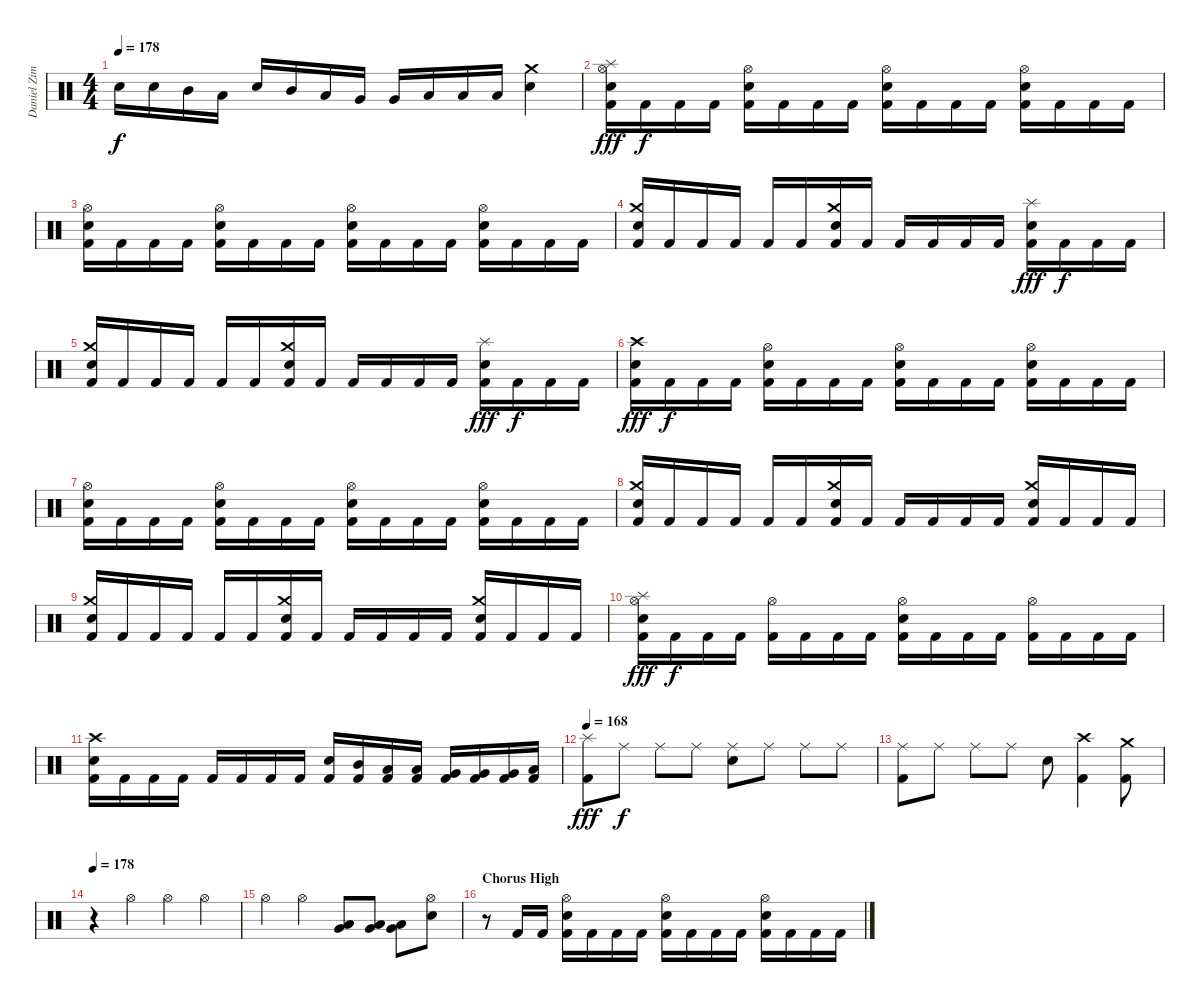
\track ("Daniel Zimmermann" "Daniel Zim") {instrument percussion}
\staff {score}
\articulation defaults
\ts (4 4)
\tempo 178
\clef neutral
\ks c "Electric Snare (hit)".16{dy f} "Electric Snare (hit)".16 "Mid Tom (hit)".16 "Low Tom (hit)".16 "Electric Snare (hit)".16 "Mid Tom (hit)".16 "Low Tom (hit)".16 "Very Low Tom (hit)".16 "Very Low Tom (hit)".16 "Low Floor Tom (hit)".16 "Low Floor Tom (hit)".16 "Low Floor Tom (hit)".16
("Electric Snare (hit)" "Crash medium (hit)").4 |
("Kick (hit) 2" "Electric Snare (hit)" "Splash (hit)" "Hi-Hat (open)").16{dy fff} "Kick (hit) 2".16{dy f} "Kick (hit) 2".16 "Kick (hit) 2".16 ("Kick (hit) 2" "Electric Snare (hit)" "Hi-Hat (open)").16 "Kick (hit) 2".16 "Kick (hit) 2".16 "Kick (hit) 2".16 ("Kick (hit) 2" "Electric Snare (hit)" "Hi-Hat (open)").16 "Kick (hit) 2".16 "Kick (hit) 2".16 "Kick (hit) 2".16 ("Kick (hit) 2" "Electric Snare (hit)" "Hi-Hat (open)").16 "Kick (hit) 2".16 "Kick (hit) 2".16 "Kick (hit) 2".16 |
("Kick (hit) 2" "Electric Snare (hit)" "Hi-Hat (open)").16 "Kick (hit) 2".16 "Kick (hit) 2".16 "Kick (hit) 2".16 ("Kick (hit) 2" "Electric Snare (hit)" "Hi-Hat (open)").16 "Kick (hit) 2".16 "Kick (hit) 2".16 "Kick (hit) 2".16 ("Kick (hit) 2" "Electric Snare (hit)" "Hi-Hat (open)").16 "Kick (hit) 2".16 "Kick (hit) 2".16 "Kick (hit) 2".16 ("Kick (hit) 2" "Electric Snare (hit)" "Hi-Hat (open)").16 "Kick (hit) 2".16 "Kick (hit) 2".16 "Kick (hit) 2".16 |
("Kick (hit) 2" "Electric Snare (hit)" "Crash medium (hit)").16 "Kick (hit) 2".16 "Kick (hit) 2".16 "Kick (hit) 2".16 "Kick (hit) 2".16 "Kick (hit) 2".16 ("Kick (hit) 2" "Electric Snare (hit)" "Crash medium (hit)").16 "Kick (hit) 2".16 "Kick (hit) 2".16 "Kick (hit) 2".16 "Kick (hit) 2".16 "Kick (hit) 2".16 ("Kick (hit) 2" "Electric Snare (hit)" "Splash (hit)").16{dy fff} "Kick (hit) 2".16{dy f} "Kick (hit) 2".16 "Kick (hit) 2".16 |
("Kick (hit) 2" "Electric Snare (hit)" "Crash medium (hit)").16 "Kick (hit) 2".16 "Kick (hit) 2".16 "Kick (hit) 2".16 "Kick (hit) 2".16 "Kick (hit) 2".16 ("Kick (hit) 2" "Electric Snare (hit)" "Crash medium (hit)").16 "Kick (hit) 2".16 "Kick (hit) 2".16 "Kick (hit) 2".16 "Kick (hit) 2".16 "Kick (hit) 2".16 ("Kick (hit) 2" "Electric Snare (hit)" "Splash (hit)").16{dy fff} "Kick (hit) 2".16{dy f} "Kick (hit) 2".16 "Kick (hit) 2".16 |
("Kick (hit) 2" "Electric Snare (hit)" "Crash high (hit)").16{dy fff} "Kick (hit) 2".16{dy f} "Kick (hit) 2".16 "Kick (hit) 2".16 ("Kick (hit) 2" "Electric Snare (hit)" "Hi-Hat (open)").16 "Kick (hit) 2".16 "Kick (hit) 2".16 "Kick (hit) 2".16 ("Kick (hit) 2" "Electric Snare (hit)" "Hi-Hat (open)").16 "Kick (hit) 2".16 "Kick (hit) 2".16 "Kick (hit) 2".16 ("Kick (hit) 2" "Electric Snare (hit)" "Hi-Hat (open)").16 "Kick (hit) 2".16 "Kick (hit) 2".16 "Kick (hit) 2".16 |
("Kick (hit) 2" "Electric Snare (hit)" "Hi-Hat (open)").16 "Kick (hit) 2".16 "Kick (hit) 2".16 "Kick (hit) 2".16 ("Kick (hit) 2" "Electric Snare (hit)" "Hi-Hat (open)").16 "Kick (hit) 2".16 "Kick (hit) 2".16 "Kick (hit) 2".16 ("Kick (hit) 2" "Electric Snare (hit)" "Hi-Hat (open)").16 "Kick (hit) 2".16 "Kick (hit) 2".16 "Kick (hit) 2".16 ("Kick (hit) 2" "Electric Snare (hit)" "Hi-Hat (open)").16 "Kick (hit) 2".16 "Kick (hit) 2".16 "Kick (hit) 2".16 |
("Kick (hit) 2" "Electric Snare (hit)" "Crash medium (hit)").16 "Kick (hit) 2".16 "Kick (hit) 2".16 "Kick (hit) 2".16 "Kick (hit) 2".16 "Kick (hit) 2".16 ("Kick (hit) 2" "Electric Snare (hit)" "Crash medium (hit)").16 "Kick (hit) 2".16 "Kick (hit) 2".16 "Kick (hit) 2".16 "Kick (hit) 2".16 "Kick (hit) 2".16 ("Kick (hit) 2" "Electric Snare (hit)" "Crash medium (hit)").16 "Kick (hit) 2".16 "Kick (hit) 2".16 "Kick (hit) 2".16 |
("Kick (hit) 2" "Electric Snare (hit)" "Crash medium (hit)").16 "Kick (hit) 2".16 "Kick (hit) 2".16 "Kick (hit) 2".16 "Kick (hit) 2".16 "Kick (hit) 2".16 ("Kick (hit) 2" "Electric Snare (hit)" "Crash medium (hit)").16 "Kick (hit) 2".16 "Kick (hit) 2".16 "Kick (hit) 2".16 "Kick (hit) 2".16 "Kick (hit) 2".16 ("Kick (hit) 2" "Electric Snare (hit)" "Crash medium (hit)").16 "Kick (hit) 2".16 "Kick (hit) 2".16 "Kick (hit) 2".16 |
("Kick (hit) 2" "Electric Snare (hit)" "Splash (hit)" "Hi-Hat (open)").16{dy fff} "Kick (hit) 2".16{dy f} "Kick (hit) 2".16 "Kick (hit) 2".16 ("Kick (hit) 2" "Hi-Hat (open)").16 "Kick (hit) 2".16 "Kick (hit) 2".16 "Kick (hit) 2".16 ("Kick (hit) 2" "Electric Snare (hit)" "Hi-Hat (open)").16 "Kick (hit) 2".16 "Kick (hit) 2".16 "Kick (hit) 2".16 ("Kick (hit) 2" "Hi-Hat (open)").16 "Kick (hit) 2".16 "Kick (hit) 2".16 "Kick (hit) 2".16 |
("Kick (hit) 2" "Electric Snare (hit)" "Crash high (hit)").16 "Kick (hit) 2".16 "Kick (hit) 2".16 "Kick (hit) 2".16 "Kick (hit) 2".16 "Kick (hit) 2".16 "Kick (hit) 2".16 "Kick (hit) 2".16 ("Kick (hit) 2" "Electric Snare (hit)").16 ("Kick (hit) 2" "Mid Tom (hit)").16 ("Kick (hit) 2" "Low Tom (hit)").16 ("Kick (hit) 2" "Low Tom (hit)").16 ("Kick (hit) 2" "Very Low Tom (hit)").16 ("Kick (hit) 2" "Very Low Tom (hit)").16 ("Kick (hit) 2" "Very Low Tom (hit)").16 ("Kick (hit) 2" "Low Floor Tom (hit)").16 |
\tempo 168
("Kick (hit) 2" "Splash (hit)").8{dy fff} "Ride (middle)".8{dy f} "Ride (middle)".8 "Ride (middle)".8 ("Electric Snare (hit)" "Ride (middle)").8 "Ride (middle)".8 "Ride (middle)".8 "Ride (middle)".8 |
("Kick (hit) 2" "Ride (middle)").8 "Ride (middle)".8 "Ride (middle)".8 "Ride (middle)".8 "Electric Snare (hit)".8 ("Kick (hit) 2" "Crash high (hit)").4 ("Kick (hit) 2" "Crash medium (hit)").8 |
\tempo 178
r.4 "Hi-Hat (open)".4 "Hi-Hat (open)".4 "Hi-Hat (open)".4 |
"Hi-Hat (open)".4 "Hi-Hat (open)".4 ("Very Low Tom (hit)" "Low Floor Tom (hit)").8 ("Very Low Tom (hit)" "Low Floor Tom (hit)").8 ("Very Low Tom (hit)" "Low Floor Tom (hit)").8 ("Electric Snare (hit)" "Hi-Hat (open)").8 |
\section ("" "Chorus High")
r.8 "Kick (hit) 2".16 "Kick (hit) 2".16 ("Kick (hit) 2" "Electric Snare (hit)" "Hi-Hat (open)").16 "Kick (hit) 2".16 "Kick (hit) 2".16 "Kick (hit) 2".16 ("Kick (hit) 2" "Electric Snare (hit)" "Hi-Hat (open)").16 "Kick (hit) 2".16 "Kick (hit) 2".16 "Kick (hit) 2".16 ("Kick (hit) 2" "Electric Snare (hit)" "Hi-Hat (open)").16 "Kick (hit) 2".16 "Kick (hit) 2".16 "Kick (hit) 2".16
